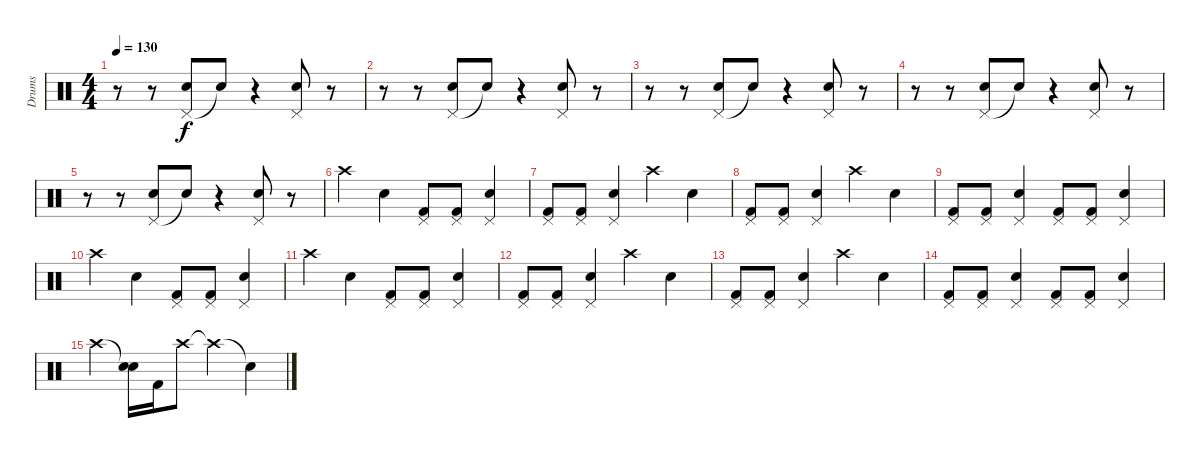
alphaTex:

\track ("Drums" "Drums") {instrument percussion}
\staff {score}
\articulation defaults
\ts (4 4)
\tempo 130
\clef neutral
\ks c
r.8{dy f} r.8 ("Pedal Hi-Hat (hit)" "Hand Clap (hit)").8 "Snare (hit)"{t}.8 r.4 ("Pedal Hi-Hat (hit)" "Hand Clap (hit)").8 r.8 |
r.8 r.8 ("Pedal Hi-Hat (hit)" "Hand Clap (hit)").8 "Snare (hit)"{t}.8 r.4 ("Pedal Hi-Hat (hit)" "Hand Clap (hit)").8 r.8 |
r.8 r.8 ("Pedal Hi-Hat (hit)" "Hand Clap (hit)").8 "Snare (hit)"{t}.8 r.4 ("Pedal Hi-Hat (hit)" "Hand Clap (hit)").8 r.8 |
r.8 r.8 ("Pedal Hi-Hat (hit)" "Hand Clap (hit)").8 "Snare (hit)"{t}.8 r.4 ("Pedal Hi-Hat (hit)" "Hand Clap (hit)").8 r.8 |
r.8 r.8 ("Pedal Hi-Hat (hit)" "Hand Clap (hit)").8 "Snare (hit)"{t}.8 r.4 ("Pedal Hi-Hat (hit)" "Hand Clap (hit)").8 r.8 |
"Crash high (hit)".4 "Snare (hit) 2".4 ("Pedal Hi-Hat (hit)" "Kick (hit) 2").8 ("Pedal Hi-Hat (hit)" "Kick (hit) 2").8 ("Pedal Hi-Hat (hit)" "Snare (hit) 2").4 |
("Pedal Hi-Hat (hit)" "Kick (hit) 2").8 ("Pedal Hi-Hat (hit)" "Kick (hit) 2").8 ("Pedal Hi-Hat (hit)" "Snare (hit) 2").4 "Crash high (hit)".4 "Snare (hit) 2".4 |
("Pedal Hi-Hat (hit)" "Kick (hit) 2").8 ("Pedal Hi-Hat (hit)" "Kick (hit) 2").8 ("Pedal Hi-Hat (hit)" "Snare (hit) 2").4 "Crash high (hit)".4 "Snare (hit) 2".4 |
("Pedal Hi-Hat (hit)" "Kick (hit) 2").8 ("Pedal Hi-Hat (hit)" "Kick (hit) 2").8 ("Pedal Hi-Hat (hit)" "Snare (hit) 2").4 ("Pedal Hi-Hat (hit)" "Kick (hit) 2").8 ("Pedal Hi-Hat (hit)" "Kick (hit) 2").8 ("Pedal Hi-Hat (hit)" "Snare (hit) 2").4 |
"Crash high (hit)".4 "Snare (hit) 2".4 ("Pedal Hi-Hat (hit)" "Kick (hit) 2").8 ("Pedal Hi-Hat (hit)" "Kick (hit) 2").8 ("Pedal Hi-Hat (hit)" "Snare (hit) 2").4 |
"Crash high (hit)".4 "Snare (hit) 2".4 ("Pedal Hi-Hat (hit)" "Kick (hit) 2").8 ("Pedal Hi-Hat (hit)" "Kick (hit) 2").8 ("Pedal Hi-Hat (hit)" "Snare (hit) 2").4 |
("Pedal Hi-Hat (hit)" "Kick (hit) 2").8 ("Pedal Hi-Hat (hit)" "Kick (hit) 2").8 ("Pedal Hi-Hat (hit)" "Snare (hit) 2").4 "Crash high (hit)".4 "Snare (hit) 2".4 |
("Pedal Hi-Hat (hit)" "Kick (hit) 2").8 ("Pedal Hi-Hat (hit)" "Kick (hit) 2").8 ("Pedal Hi-Hat (hit)" "Snare (hit) 2").4 "Crash high (hit)".4 "Snare (hit) 2".4 |
("Pedal Hi-Hat (hit)" "Kick (hit) 2").8 ("Pedal Hi-Hat (hit)" "Kick (hit) 2").8 ("Pedal Hi-Hat (hit)" "Snare (hit) 2").4 ("Pedal Hi-Hat (hit)" "Kick (hit) 2").8 ("Pedal Hi-Hat (hit)" "Kick (hit) 2").8 ("Pedal Hi-Hat (hit)" "Snare (hit) 2").4 |
"Crash high (hit)".4 ("Snare (hit)"{t} "Snare (hit) 2").16 "Kick (hit) 2".16 "Crash high (hit)".8 "Crash high (hit)"{t}.4 "Snare (hit)"{t}.4
